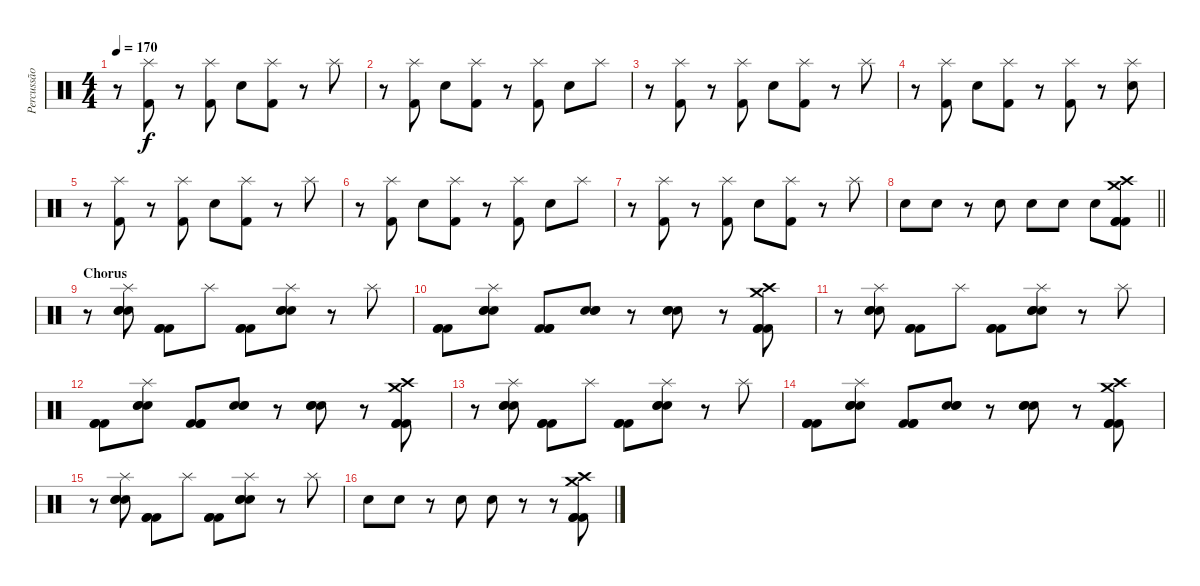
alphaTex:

\track ("Percussão" "Percussão") {instrument percussion}
\staff {score}
\articulation defaults
\ts (4 4)
\tempo 170
\clef neutral
\ks c
r.8{dy f} ("Splash (hit)" "Kick (hit) 2").8 r.8 ("Splash (hit)" "Kick (hit) 2").8 "Electric Snare (hit)".8 ("Splash (hit)" "Kick (hit) 2").8 r.8 "Splash (hit)".8 |
r.8 ("Splash (hit)" "Kick (hit) 2").8 "Electric Snare (hit)".8 ("Splash (hit)" "Kick (hit) 2").8 r.8 ("Splash (hit)" "Kick (hit) 2").8 "Electric Snare (hit)".8 "Splash (hit)".8 |
r.8 ("Splash (hit)" "Kick (hit) 2").8 r.8 ("Splash (hit)" "Kick (hit) 2").8 "Electric Snare (hit)".8 ("Splash (hit)" "Kick (hit) 2").8 r.8 "Splash (hit)".8 |
r.8 ("Splash (hit)" "Kick (hit) 2").8 "Electric Snare (hit)".8 ("Splash (hit)" "Kick (hit) 2").8 r.8 ("Splash (hit)" "Kick (hit) 2").8 r.8 ("Splash (hit)" "Electric Snare (hit)").8 |
r.8 ("Splash (hit)" "Kick (hit) 2").8 r.8 ("Splash (hit)" "Kick (hit) 2").8 "Electric Snare (hit)".8 ("Splash (hit)" "Kick (hit) 2").8 r.8 "Splash (hit)".8 |
r.8 ("Splash (hit)" "Kick (hit) 2").8 "Electric Snare (hit)".8 ("Splash (hit)" "Kick (hit) 2").8 r.8 ("Splash (hit)" "Kick (hit) 2").8 "Electric Snare (hit)".8 "Splash (hit)".8 |
r.8 ("Splash (hit)" "Kick (hit) 2").8 r.8 ("Splash (hit)" "Kick (hit) 2").8 "Electric Snare (hit)".8 ("Splash (hit)" "Kick (hit) 2").8 r.8 "Splash (hit)".8 |
\barLineRight lightlight "Electric Snare (hit)".8 "Electric Snare (hit)".8
r.8 "Electric Snare (hit)".8 "Electric Snare (hit)".8 "Electric Snare (hit)".8 "Electric Snare (hit)".8 ("Crash high (hit)" "Crash medium (hit)" "Kick (hit) 2" "Kick (hit) 2" "Kick (hit) 2").8 |
\section ("" "Chorus")
r.8 ("Splash (hit)" "Electric Snare (hit)" "Electric Snare (hit)" "Electric Snare (hit)").8 ("Kick (hit) 2" "Kick (hit) 2" "Kick (hit) 2").8 "Splash (hit)".8 ("Kick (hit) 2" "Kick (hit) 2" "Kick (hit) 2").8 ("Splash (hit)" "Electric Snare (hit)" "Electric Snare (hit)" "Electric Snare (hit)").8 r.8 "Splash (hit)".8 |
("Kick (hit) 2" "Kick (hit) 2" "Kick (hit) 2").8 ("Splash (hit)" "Electric Snare (hit)" "Electric Snare (hit)" "Electric Snare (hit)").8 ("Kick (hit) 2" "Kick (hit) 2" "Kick (hit) 2").8 ("Electric Snare (hit)" "Electric Snare (hit)" "Electric Snare (hit)").8 r.8 ("Electric Snare (hit)" "Electric Snare (hit)" "Electric Snare (hit)").8 r.8 ("Crash high (hit)" "Crash medium (hit)" "Kick (hit) 2" "Kick (hit) 2" "Kick (hit) 2").8 |
r.8 ("Splash (hit)" "Electric Snare (hit)" "Electric Snare (hit)" "Electric Snare (hit)").8 ("Kick (hit) 2" "Kick (hit) 2" "Kick (hit) 2").8 "Splash (hit)".8 ("Kick (hit) 2" "Kick (hit) 2" "Kick (hit) 2").8 ("Splash (hit)" "Electric Snare (hit)" "Electric Snare (hit)" "Electric Snare (hit)").8 r.8 "Splash (hit)".8 |
("Kick (hit) 2" "Kick (hit) 2" "Kick (hit) 2").8 ("Splash (hit)" "Electric Snare (hit)" "Electric Snare (hit)" "Electric Snare (hit)").8 ("Kick (hit) 2" "Kick (hit) 2" "Kick (hit) 2").8 ("Electric Snare (hit)" "Electric Snare (hit)" "Electric Snare (hit)").8 r.8 ("Electric Snare (hit)" "Electric Snare (hit)" "Electric Snare (hit)").8 r.8 ("Crash high (hit)" "Crash medium (hit)" "Kick (hit) 2" "Kick (hit) 2" "Kick (hit) 2").8 |
r.8 ("Splash (hit)" "Electric Snare (hit)" "Electric Snare (hit)" "Electric Snare (hit)").8 ("Kick (hit) 2" "Kick (hit) 2" "Kick (hit) 2").8 "Splash (hit)".8 ("Kick (hit) 2" "Kick (hit) 2" "Kick (hit) 2").8 ("Splash (hit)" "Electric Snare (hit)" "Electric Snare (hit)" "Electric Snare (hit)").8 r.8 "Splash (hit)".8 |
("Kick (hit) 2" "Kick (hit) 2" "Kick (hit) 2").8 ("Splash (hit)" "Electric Snare (hit)" "Electric Snare (hit)" "Electric Snare (hit)").8 ("Kick (hit) 2" "Kick (hit) 2" "Kick (hit) 2").8 ("Electric Snare (hit)" "Electric Snare (hit)" "Electric Snare (hit)").8 r.8 ("Electric Snare (hit)" "Electric Snare (hit)" "Electric Snare (hit)").8 r.8 ("Crash high (hit)" "Crash medium (hit)" "Kick (hit) 2" "Kick (hit) 2" "Kick (hit) 2").8 |
r.8 ("Splash (hit)" "Electric Snare (hit)" "Electric Snare (hit)" "Electric Snare (hit)").8 ("Kick (hit) 2" "Kick (hit) 2" "Kick (hit) 2").8 "Splash (hit)".8 ("Kick (hit) 2" "Kick (hit) 2" "Kick (hit) 2").8 ("Splash (hit)" "Electric Snare (hit)" "Electric Snare (hit)" "Electric Snare (hit)").8 r.8 "Splash (hit)".8 |
"Electric Snare (hit)".8 "Electric Snare (hit)".8 r.8 "Electric Snare (hit)".8 "Electric Snare (hit)".8 r.8 r.8 ("Crash high (hit)" "Crash medium (hit)" "Kick (hit) 2" "Kick (hit) 2" "Kick (hit) 2").8
